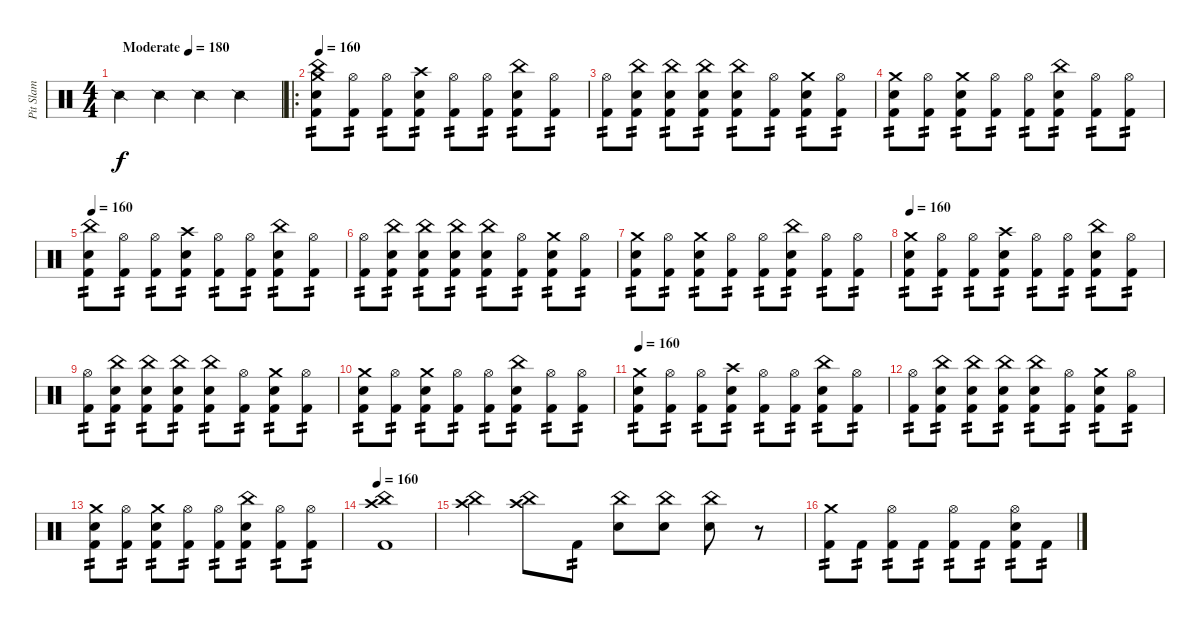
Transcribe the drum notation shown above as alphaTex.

\track ("Pit Slam" "Pit Slam") {instrument percussion}
\staff {score}
\articulation defaults
\ts (4 4)
\tempo (180 "Moderate")
\clef neutral
\ks c "Snare (side stick) 2".4{dy f} "Snare (side stick) 2".4 "Snare (side stick) 2".4 "Snare (side stick) 2".4
|
\ro
\tempo 160
("Crash medium (hit)" "China (hit)" "Electric Snare (hit)" "Kick (hit) 2").8{tp 2} ("Hi-Hat (open)" "Kick (hit) 2").8{tp 2} ("Hi-Hat (open)" "Kick (hit) 2").8{tp 2} ("Crash high (hit)" "Electric Snare (hit)" "Kick (hit) 2").8{tp 2} ("Hi-Hat (open)" "Kick (hit) 2").8{tp 2} ("Hi-Hat (open)" "Kick (hit) 2").8{tp 2} ("China (hit)" "Electric Snare (hit)" "Kick (hit) 2").8{tp 2} ("Hi-Hat (open)" "Kick (hit) 2").8{tp 2} |
("Hi-Hat (open)" "Kick (hit) 2").8{tp 2} ("China (hit)" "Electric Snare (hit)" "Kick (hit) 2").8{tp 2} ("China (hit)" "Electric Snare (hit)" "Kick (hit) 2").8{tp 2} ("China (hit)" "Electric Snare (hit)" "Kick (hit) 2").8{tp 2} ("China (hit)" "Electric Snare (hit)" "Kick (hit) 2").8{tp 2} ("Hi-Hat (open)" "Kick (hit) 2").8{tp 2} ("Crash medium (hit)" "Electric Snare (hit)" "Kick (hit) 2").8{tp 2} ("Hi-Hat (open)" "Kick (hit) 2").8{tp 2} |
("Crash medium (hit)" "Electric Snare (hit)" "Kick (hit) 2").8{tp 2} ("Hi-Hat (open)" "Kick (hit) 2").8{tp 2} ("Crash medium (hit)" "Electric Snare (hit)" "Kick (hit) 2").8{tp 2} ("Hi-Hat (open)" "Kick (hit) 2").8{tp 2} ("Hi-Hat (open)" "Kick (hit) 2").8{tp 2} ("China (hit)" "Electric Snare (hit)" "Kick (hit) 2").8{tp 2} ("Hi-Hat (open)" "Kick (hit) 2").8{tp 2} ("Hi-Hat (open)" "Kick (hit) 2").8{tp 2} |
\tempo 160
("China (hit)" "Electric Snare (hit)" "Kick (hit) 2").8{tp 2} ("Hi-Hat (open)" "Kick (hit) 2").8{tp 2} ("Hi-Hat (open)" "Kick (hit) 2").8{tp 2} ("Crash high (hit)" "Electric Snare (hit)" "Kick (hit) 2").8{tp 2} ("Hi-Hat (open)" "Kick (hit) 2").8{tp 2} ("Hi-Hat (open)" "Kick (hit) 2").8{tp 2} ("China (hit)" "Electric Snare (hit)" "Kick (hit) 2").8{tp 2} ("Hi-Hat (open)" "Kick (hit) 2").8{tp 2} |
("Hi-Hat (open)" "Kick (hit) 2").8{tp 2} ("China (hit)" "Electric Snare (hit)" "Kick (hit) 2").8{tp 2} ("China (hit)" "Electric Snare (hit)" "Kick (hit) 2").8{tp 2} ("China (hit)" "Electric Snare (hit)" "Kick (hit) 2").8{tp 2} ("China (hit)" "Electric Snare (hit)" "Kick (hit) 2").8{tp 2} ("Hi-Hat (open)" "Kick (hit) 2").8{tp 2} ("Crash medium (hit)" "Electric Snare (hit)" "Kick (hit) 2").8{tp 2} ("Hi-Hat (open)" "Kick (hit) 2").8{tp 2} |
("Crash medium (hit)" "Electric Snare (hit)" "Kick (hit) 2").8{tp 2} ("Hi-Hat (open)" "Kick (hit) 2").8{tp 2} ("Crash medium (hit)" "Electric Snare (hit)" "Kick (hit) 2").8{tp 2} ("Hi-Hat (open)" "Kick (hit) 2").8{tp 2} ("Hi-Hat (open)" "Kick (hit) 2").8{tp 2} ("China (hit)" "Electric Snare (hit)" "Kick (hit) 2").8{tp 2} ("Hi-Hat (open)" "Kick (hit) 2").8{tp 2} ("Hi-Hat (open)" "Kick (hit) 2").8{tp 2} |
\tempo 160
("Crash medium (hit)" "Electric Snare (hit)" "Kick (hit) 2").8{tp 2} ("Hi-Hat (open)" "Kick (hit) 2").8{tp 2} ("Hi-Hat (open)" "Kick (hit) 2").8{tp 2} ("Crash high (hit)" "Electric Snare (hit)" "Kick (hit) 2").8{tp 2} ("Hi-Hat (open)" "Kick (hit) 2").8{tp 2} ("Hi-Hat (open)" "Kick (hit) 2").8{tp 2} ("China (hit)" "Electric Snare (hit)" "Kick (hit) 2").8{tp 2} ("Hi-Hat (open)" "Kick (hit) 2").8{tp 2} |
("Hi-Hat (open)" "Kick (hit) 2").8{tp 2} ("China (hit)" "Electric Snare (hit)" "Kick (hit) 2").8{tp 2} ("China (hit)" "Electric Snare (hit)" "Kick (hit) 2").8{tp 2} ("China (hit)" "Electric Snare (hit)" "Kick (hit) 2").8{tp 2} ("China (hit)" "Electric Snare (hit)" "Kick (hit) 2").8{tp 2} ("Hi-Hat (open)" "Kick (hit) 2").8{tp 2} ("Crash medium (hit)" "Electric Snare (hit)" "Kick (hit) 2").8{tp 2} ("Hi-Hat (open)" "Kick (hit) 2").8{tp 2} |
("Crash medium (hit)" "Electric Snare (hit)" "Kick (hit) 2").8{tp 2} ("Hi-Hat (open)" "Kick (hit) 2").8{tp 2} ("Crash medium (hit)" "Electric Snare (hit)" "Kick (hit) 2").8{tp 2} ("Hi-Hat (open)" "Kick (hit) 2").8{tp 2} ("Hi-Hat (open)" "Kick (hit) 2").8{tp 2} ("China (hit)" "Electric Snare (hit)" "Kick (hit) 2").8{tp 2} ("Hi-Hat (open)" "Kick (hit) 2").8{tp 2} ("Hi-Hat (open)" "Kick (hit) 2").8{tp 2} |
\tempo 160
("Crash medium (hit)" "Electric Snare (hit)" "Kick (hit) 2").8{tp 2} ("Hi-Hat (open)" "Kick (hit) 2").8{tp 2} ("Hi-Hat (open)" "Kick (hit) 2").8{tp 2} ("Crash high (hit)" "Electric Snare (hit)" "Kick (hit) 2").8{tp 2} ("Hi-Hat (open)" "Kick (hit) 2").8{tp 2} ("Hi-Hat (open)" "Kick (hit) 2").8{tp 2} ("China (hit)" "Electric Snare (hit)" "Kick (hit) 2").8{tp 2} ("Hi-Hat (open)" "Kick (hit) 2").8{tp 2} |
("Hi-Hat (open)" "Kick (hit) 2").8{tp 2} ("China (hit)" "Electric Snare (hit)" "Kick (hit) 2").8{tp 2} ("China (hit)" "Electric Snare (hit)" "Kick (hit) 2").8{tp 2} ("China (hit)" "Electric Snare (hit)" "Kick (hit) 2").8{tp 2} ("China (hit)" "Electric Snare (hit)" "Kick (hit) 2").8{tp 2} ("Hi-Hat (open)" "Kick (hit) 2").8{tp 2} ("Crash medium (hit)" "Electric Snare (hit)" "Kick (hit) 2").8{tp 2} ("Hi-Hat (open)" "Kick (hit) 2").8{tp 2} |
("Crash medium (hit)" "Electric Snare (hit)" "Kick (hit) 2").8{tp 2} ("Hi-Hat (open)" "Kick (hit) 2").8{tp 2} ("Crash medium (hit)" "Electric Snare (hit)" "Kick (hit) 2").8{tp 2} ("Hi-Hat (open)" "Kick (hit) 2").8{tp 2} ("Hi-Hat (open)" "Kick (hit) 2").8{tp 2} ("China (hit)" "Electric Snare (hit)" "Kick (hit) 2").8{tp 2} ("Hi-Hat (open)" "Kick (hit) 2").8{tp 2} ("Hi-Hat (open)" "Kick (hit) 2").8{tp 2} |
\tempo 160
("China (hit)" "Crash high (hit)" "Kick (hit) 2").1 |
("China (hit)" "Crash high (hit)").4 ("China (hit)" "Crash high (hit)").8 "Kick (hit) 2".8{tp 2} ("China (hit)" "Electric Snare (hit)").8 ("China (hit)" "Electric Snare (hit)").8 ("China (hit)" "Electric Snare (hit)").8 r.8 |
("Crash medium (hit)" "Kick (hit) 2").8{tp 2} "Kick (hit) 2".8{tp 2} ("Hi-Hat (open)" "Kick (hit) 2").8{tp 2} "Kick (hit) 2".8{tp 2} ("Hi-Hat (open)" "Kick (hit) 2").8{tp 2} "Kick (hit) 2".8{tp 2} ("Hi-Hat (open)" "Electric Snare (hit)" "Kick (hit) 2").8{tp 2} "Kick (hit) 2".8{tp 2}
